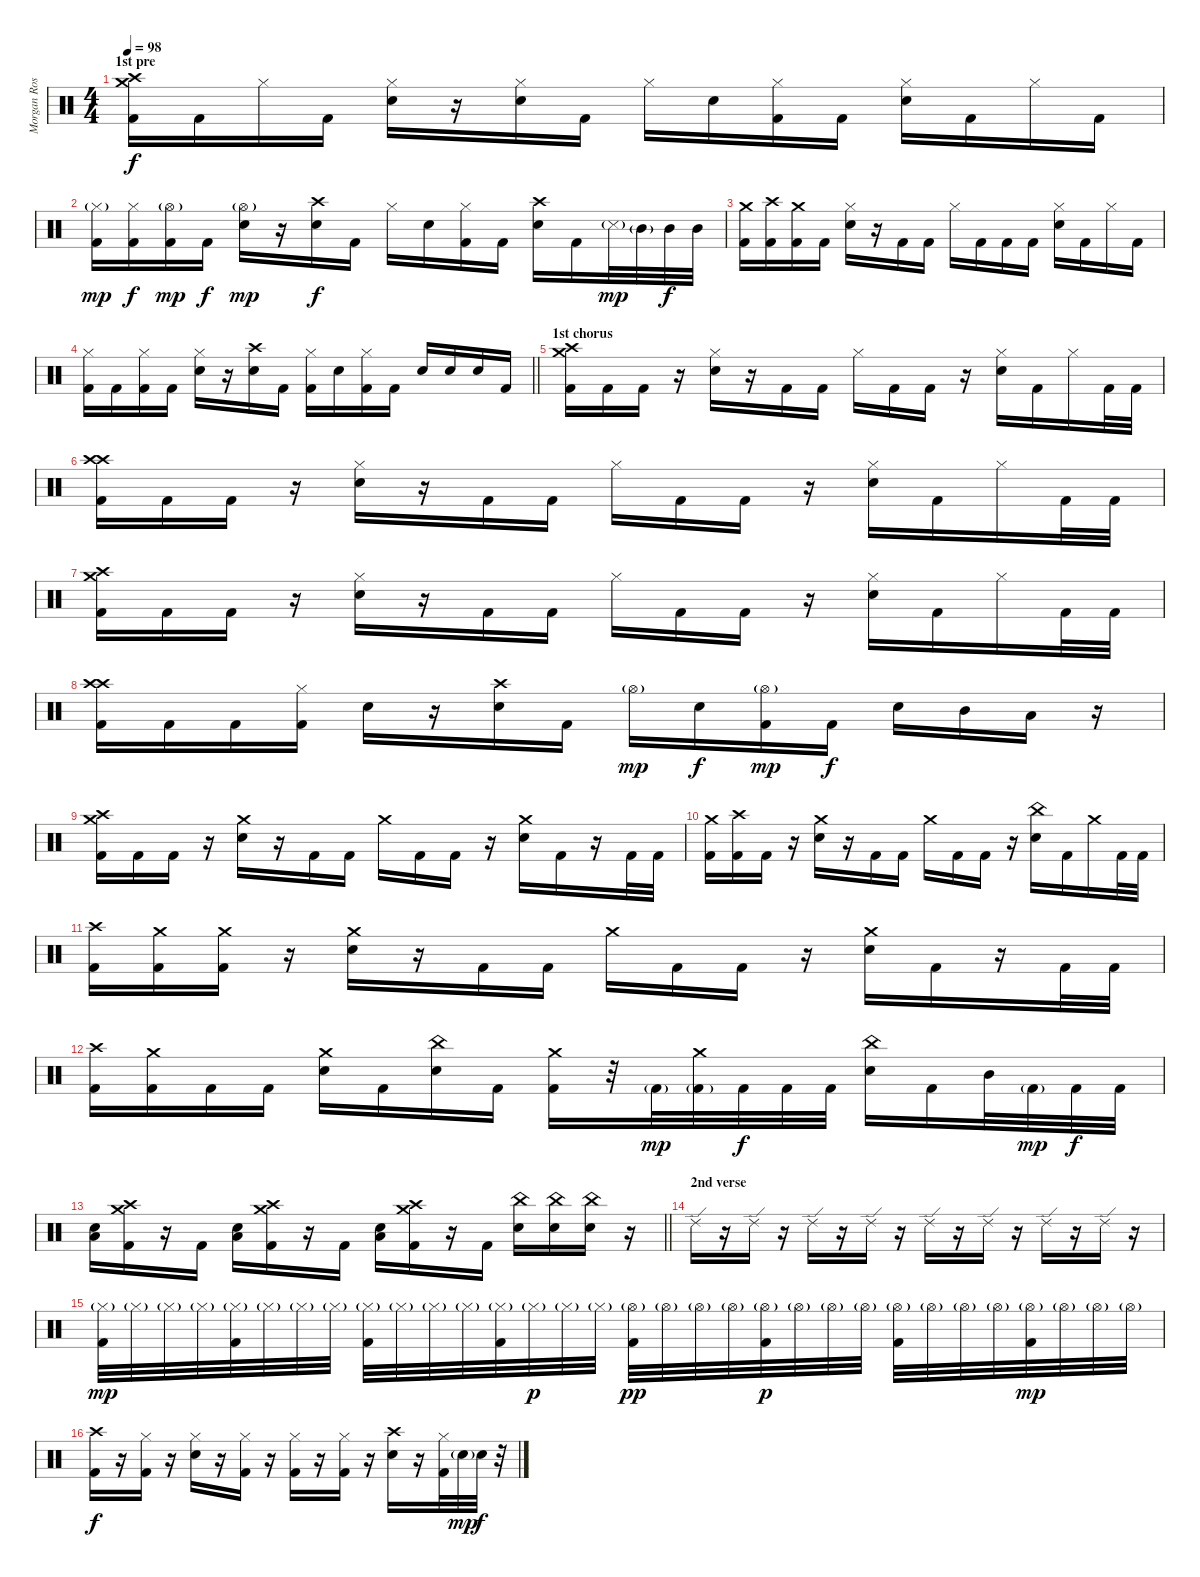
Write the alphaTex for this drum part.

\track ("Morgan Rose" "Morgan Ros") {instrument percussion}
\staff {score}
\articulation defaults
\ts (4 4)
\section ("" "1st pre")
\tempo 98
\clef neutral
\ks c
("Crash medium (hit)" "Crash high (hit)" "Kick (hit) 2").16{dy f} "Kick (hit) 2".16 "Hi-Hat (closed)".16 "Kick (hit) 2".16 ("Hi-Hat (closed)" "Snare (hit) 2").16 r.16 ("Hi-Hat (closed)" "Snare (hit) 2").16 "Kick (hit) 2".16 "Hi-Hat (closed)".16 "Snare (hit) 2".16 ("Hi-Hat (closed)" "Kick (hit) 2").16 "Kick (hit) 2".16 ("Hi-Hat (closed)" "Snare (hit) 2").16 "Kick (hit) 2".16 "Hi-Hat (closed)".16 "Kick (hit) 2".16 |
("Hi-Hat (closed)"{g} "Kick (hit) 2").16{dy mp} ("Hi-Hat (closed)" "Kick (hit) 2").16{dy f} ("Hi-Hat (open)"{g} "Kick (hit) 2").16{dy mp} "Kick (hit) 2".16{dy f} ("Hi-Hat (open)"{g} "Snare (hit) 2").16{dy mp} r.16 ("Crash high (hit)" "Snare (hit) 2").16{dy f} "Kick (hit) 2".16 "Hi-Hat (closed)".16 "Snare (hit) 2".16 ("Hi-Hat (closed)" "Kick (hit) 2").16 "Kick (hit) 2".16 ("Crash high (hit)" "Snare (hit) 2").16 "Kick (hit) 2".16 "Snare (side stick) 3"{g}.32{dy mp} "Mid Tom (hit)"{g}.32 "Mid Tom (hit)".32{dy f} "Mid Tom (hit)".32 |
("Crash medium (hit)" "Kick (hit) 2").16 ("Crash high (hit)" "Kick (hit) 2").16 ("Crash medium (hit)" "Kick (hit) 2").16 "Kick (hit) 2".16 ("Hi-Hat (closed)" "Snare (hit) 2").16 r.16 "Kick (hit) 2".16 "Kick (hit) 2".16 "Hi-Hat (closed)".16 "Kick (hit) 2".16 "Kick (hit) 2".16 "Kick (hit) 2".16 ("Hi-Hat (closed)" "Snare (hit) 2").16 "Kick (hit) 2".16 "Hi-Hat (closed)".16 "Kick (hit) 2".16 |
\barLineRight lightlight
("Hi-Hat (closed)" "Kick (hit) 2").16 "Kick (hit) 2".16 ("Hi-Hat (closed)" "Kick (hit) 2").16 "Kick (hit) 2".16 ("Hi-Hat (closed)" "Snare (hit) 2").16 r.16 ("Crash high (hit)" "Snare (hit) 2").16 "Kick (hit) 2".16 ("Hi-Hat (closed)" "Kick (hit) 2").16 "Snare (hit) 2".16 ("Hi-Hat (closed)" "Kick (hit) 2").16 "Kick (hit) 2".16 "Snare (hit) 2".16 "Snare (hit) 2".16 "Snare (hit) 2".16 "Kick (hit) 2".16 |
\section ("" "1st chorus")
("Crash medium (hit)" "Crash high (hit)" "Kick (hit) 2").16 "Kick (hit) 2".16 "Kick (hit) 2".16 r.16 ("Hi-Hat (closed)" "Snare (hit) 2").16 r.16 "Kick (hit) 2".16 "Kick (hit) 2".16 "Hi-Hat (closed)".16 "Kick (hit) 2".16 "Kick (hit) 2".16 r.16 ("Hi-Hat (closed)" "Snare (hit) 2").16 "Kick (hit) 2".16 "Hi-Hat (closed)".16 "Kick (hit) 2".32 "Kick (hit) 2".32 |
("Crash high (hit)" "Crash high (hit)" "Kick (hit) 2").16 "Kick (hit) 2".16 "Kick (hit) 2".16 r.16 ("Hi-Hat (closed)" "Snare (hit) 2").16 r.16 "Kick (hit) 2".16 "Kick (hit) 2".16 "Hi-Hat (closed)".16 "Kick (hit) 2".16 "Kick (hit) 2".16 r.16 ("Hi-Hat (closed)" "Snare (hit) 2").16 "Kick (hit) 2".16 "Hi-Hat (closed)".16 "Kick (hit) 2".32 "Kick (hit) 2".32 |
("Crash medium (hit)" "Crash high (hit)" "Kick (hit) 2").16 "Kick (hit) 2".16 "Kick (hit) 2".16 r.16 ("Hi-Hat (closed)" "Snare (hit) 2").16 r.16 "Kick (hit) 2".16 "Kick (hit) 2".16 "Hi-Hat (closed)".16 "Kick (hit) 2".16 "Kick (hit) 2".16 r.16 ("Hi-Hat (closed)" "Snare (hit) 2").16 "Kick (hit) 2".16 "Hi-Hat (closed)".16 "Kick (hit) 2".32 "Kick (hit) 2".32 |
("Crash high (hit)" "Crash high (hit)" "Kick (hit) 2").16 "Kick (hit) 2".16 "Kick (hit) 2".16 ("Hi-Hat (closed)" "Kick (hit) 2").16 "Snare (hit) 2".16 r.16 ("Crash high (hit)" "Snare (hit) 2").16 "Kick (hit) 2".16 "Hi-Hat (open)"{g}.16{dy mp} "Snare (hit) 2".16{dy f} ("Hi-Hat (open)"{g} "Kick (hit) 2").16{dy mp} "Kick (hit) 2".16{dy f} "Snare (hit) 2".16 "Mid Tom (hit)".16 "Low Tom (hit)".16 r.16 |
("Crash medium (hit)" "Crash high (hit)" "Kick (hit) 2").16 "Kick (hit) 2".16 "Kick (hit) 2".16 r.16 ("Crash medium (hit)" "Snare (hit) 2").16 r.16 "Kick (hit) 2".16 "Kick (hit) 2".16 "Crash medium (hit)".16 "Kick (hit) 2".16 "Kick (hit) 2".16 r.16 ("Crash medium (hit)" "Snare (hit) 2").16 "Kick (hit) 2".16 r.16 "Kick (hit) 2".32 "Kick (hit) 2".32 |
("Crash medium (hit)" "Kick (hit) 2").16 ("Crash high (hit)" "Kick (hit) 2").16 "Kick (hit) 2".16 r.16 ("Crash medium (hit)" "Snare (hit) 2").16 r.16 "Kick (hit) 2".16 "Kick (hit) 2".16 "Crash medium (hit)".16 "Kick (hit) 2".16 "Kick (hit) 2".16 r.16 ("China (hit)" "Snare (hit) 2").16 "Kick (hit) 2".16 "Crash medium (hit)".16 "Kick (hit) 2".32 "Kick (hit) 2".32 |
("Crash high (hit)" "Kick (hit) 2").16 ("Crash medium (hit)" "Kick (hit) 2").16 ("Crash medium (hit)" "Kick (hit) 2").16 r.16 ("Crash medium (hit)" "Snare (hit) 2").16 r.16 "Kick (hit) 2".16 "Kick (hit) 2".16 "Crash medium (hit)".16 "Kick (hit) 2".16 "Kick (hit) 2".16 r.16 ("Crash medium (hit)" "Snare (hit) 2").16 "Kick (hit) 2".16 r.16 "Kick (hit) 2".32 "Kick (hit) 2".32 |
("Crash high (hit)" "Kick (hit) 2").16 ("Crash medium (hit)" "Kick (hit) 2").16 "Kick (hit) 2".16 "Kick (hit) 2".16 ("Crash medium (hit)" "Snare (hit) 2").16 "Kick (hit) 2".16 ("China (hit)" "Snare (hit) 2").16 "Kick (hit) 2".16 ("Crash medium (hit)" "Kick (hit) 2").16 r.32 "Kick (hit) 2"{g}.32{dy mp} ("Crash medium (hit)" "Kick (hit) 2"{g}).32 "Kick (hit) 2".32{dy f} "Kick (hit) 2".32 "Kick (hit) 2".32 ("China (hit)" "Snare (hit) 2").16 "Kick (hit) 2".16 "Mid Tom (hit)".32 "Kick (hit) 2"{g}.32{dy mp} "Kick (hit) 2".32{dy f} "Kick (hit) 2".32 |
\barLineRight lightlight
("Snare (hit) 2" "Low Tom (hit)").16 ("Crash medium (hit)" "Crash high (hit)" "Kick (hit) 2").16 r.16 "Kick (hit) 2".16 ("Snare (hit) 2" "Low Tom (hit)").16 ("Crash medium (hit)" "Crash high (hit)" "Kick (hit) 2").16 r.16 "Kick (hit) 2".16 ("Snare (hit) 2" "Low Tom (hit)").16 ("Crash medium (hit)" "Crash high (hit)" "Kick (hit) 2").16 r.16 "Kick (hit) 2".16 ("China (hit)" "Snare (hit) 2").16 ("China (hit)" "Snare (hit) 2").16 ("China (hit)" "Snare (hit) 2").16 r.16 |
\section ("" "2nd verse")
"Ride (edge) 2".16 r.16 "Ride (edge) 2".16 r.16 "Ride (edge) 2".16 r.16 "Ride (edge) 2".16 r.16 "Ride (edge) 2".16 r.16 "Ride (edge) 2".16 r.16 "Ride (edge) 2".16 r.16 "Ride (edge) 2".16 r.16 |
("Hi-Hat (closed)"{g} "Kick (hit) 2").32{dy mp} "Hi-Hat (closed)"{g}.32 "Hi-Hat (closed)"{g}.32 "Hi-Hat (closed)"{g}.32 ("Hi-Hat (closed)"{g} "Kick (hit) 2").32 "Hi-Hat (closed)"{g}.32 "Hi-Hat (closed)"{g}.32 "Hi-Hat (closed)"{g}.32 ("Hi-Hat (closed)"{g} "Kick (hit) 2").32 "Hi-Hat (closed)"{g}.32 "Hi-Hat (closed)"{g}.32 "Hi-Hat (closed)"{g}.32 ("Hi-Hat (closed)"{g} "Kick (hit) 2").32 "Hi-Hat (closed)"{g}.32{dy p} "Hi-Hat (closed)"{g}.32 "Hi-Hat (closed)"{g}.32 ("Hi-Hat (open)"{g} "Kick (hit) 2").32{dy pp} "Hi-Hat (open)"{g}.32 "Hi-Hat (open)"{g}.32 "Hi-Hat (open)"{g}.32 ("Hi-Hat (open)"{g} "Kick (hit) 2").32{dy p} "Hi-Hat (open)"{g}.32 "Hi-Hat (open)"{g}.32 "Hi-Hat (open)"{g}.32 ("Hi-Hat (open)"{g} "Kick (hit) 2").32 "Hi-Hat (open)"{g}.32 "Hi-Hat (open)"{g}.32 "Hi-Hat (open)"{g}.32 ("Hi-Hat (open)"{g} "Kick (hit) 2").32{dy mp} "Hi-Hat (open)"{g}.32 "Hi-Hat (open)"{g}.32 "Hi-Hat (open)"{g}.32 |
("Crash high (hit)" "Kick (hit) 2").16{dy f} r.16 ("Hi-Hat (closed)" "Kick (hit) 2").16 r.16 ("Hi-Hat (closed)" "Snare (hit) 2").16 r.16 ("Hi-Hat (closed)" "Kick (hit) 2").16 r.16 ("Hi-Hat (closed)" "Kick (hit) 2").16 r.16 ("Hi-Hat (closed)" "Kick (hit) 2").16 r.16 ("Crash high (hit)" "Snare (hit) 2").16 r.16 ("Hi-Hat (closed)" "Kick (hit) 2").32 "Snare (hit) 2"{g}.32{dy mp} "Snare (hit) 2".32{dy f} r.32
